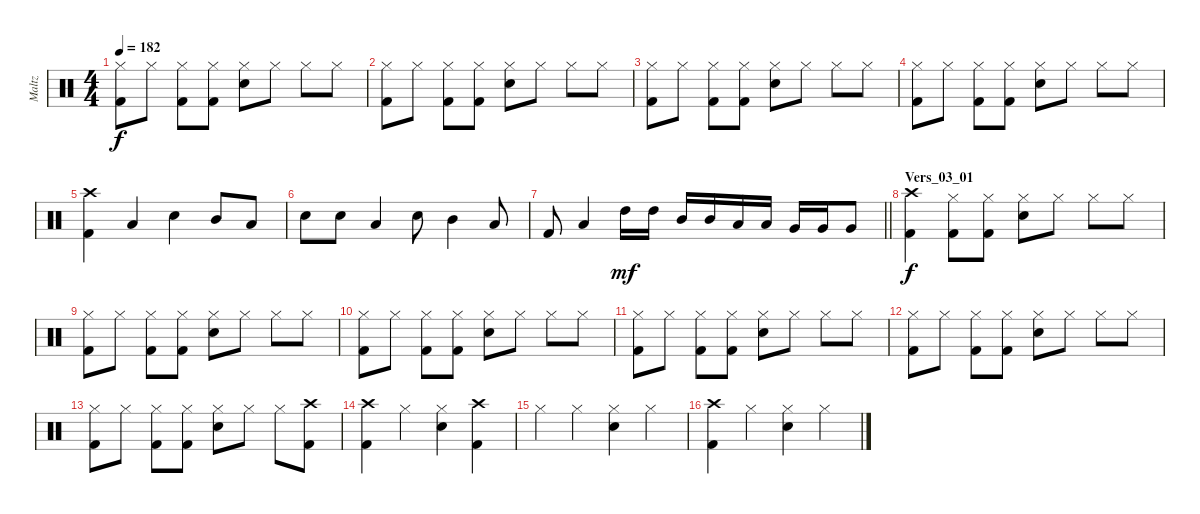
\track ("Maltz" "Maltz") {instrument percussion}
\staff {score}
\articulation defaults
\ts (4 4)
\tempo 182
\clef neutral
\ks c
("Hi-Hat (closed)" "Kick (hit) 2").8{dy f} "Hi-Hat (closed)".8 ("Hi-Hat (closed)" "Kick (hit) 2").8 ("Hi-Hat (closed)" "Kick (hit) 2").8 ("Hi-Hat (closed)" "Electric Snare (hit)").8 "Hi-Hat (closed)".8 "Hi-Hat (closed)".8 "Hi-Hat (closed)".8 |
("Hi-Hat (closed)" "Kick (hit) 2").8 "Hi-Hat (closed)".8 ("Hi-Hat (closed)" "Kick (hit) 2").8 ("Hi-Hat (closed)" "Kick (hit) 2").8 ("Hi-Hat (closed)" "Electric Snare (hit)").8 "Hi-Hat (closed)".8 "Hi-Hat (closed)".8 "Hi-Hat (closed)".8 |
("Hi-Hat (closed)" "Kick (hit) 2").8 "Hi-Hat (closed)".8 ("Hi-Hat (closed)" "Kick (hit) 2").8 ("Hi-Hat (closed)" "Kick (hit) 2").8 ("Hi-Hat (closed)" "Electric Snare (hit)").8 "Hi-Hat (closed)".8 "Hi-Hat (closed)".8 "Hi-Hat (closed)".8 |
("Hi-Hat (closed)" "Kick (hit) 2").8 "Hi-Hat (closed)".8 ("Hi-Hat (closed)" "Kick (hit) 2").8 ("Hi-Hat (closed)" "Kick (hit) 2").8 ("Hi-Hat (closed)" "Electric Snare (hit)").8 "Hi-Hat (closed)".8 "Hi-Hat (closed)".8 "Hi-Hat (closed)".8 |
("Crash high (hit)" "Kick (hit) 2").4 "Low Tom (hit)".4 "Electric Snare (hit)".4 "Mid Tom (hit)".8 "Low Tom (hit)".8 |
"Electric Snare (hit)".8 "Electric Snare (hit)".8 "Low Tom (hit)".4 "Electric Snare (hit)".8 "Mid Tom (hit)".4 "Low Tom (hit)".8 |
\barLineRight lightlight "Kick (hit) 2".8 "Low Tom (hit)".4 "High Tom (hit)".16{dy mf} "High Tom (hit)".16 "Mid Tom (hit)".16 "Mid Tom (hit)".16 "Low Tom (hit)".16 "Low Tom (hit)".16 "Very Low Tom (hit)".16 "Very Low Tom (hit)".16 "Very Low Tom (hit)".8
|
\section ("" "Vers_03_01")
("Crash high (hit)" "Kick (hit) 2").4{dy f} ("Hi-Hat (closed)" "Kick (hit) 2").8 ("Hi-Hat (closed)" "Kick (hit) 2").8 ("Hi-Hat (closed)" "Electric Snare (hit)").8 "Hi-Hat (closed)".8 "Hi-Hat (closed)".8 "Hi-Hat (closed)".8 |
("Hi-Hat (closed)" "Kick (hit) 2").8 "Hi-Hat (closed)".8 ("Hi-Hat (closed)" "Kick (hit) 2").8 ("Hi-Hat (closed)" "Kick (hit) 2").8 ("Hi-Hat (closed)" "Electric Snare (hit)").8 "Hi-Hat (closed)".8 "Hi-Hat (closed)".8 "Hi-Hat (closed)".8 |
("Hi-Hat (closed)" "Kick (hit) 2").8 "Hi-Hat (closed)".8 ("Hi-Hat (closed)" "Kick (hit) 2").8 ("Hi-Hat (closed)" "Kick (hit) 2").8 ("Hi-Hat (closed)" "Electric Snare (hit)").8 "Hi-Hat (closed)".8 "Hi-Hat (closed)".8 "Hi-Hat (closed)".8 |
("Hi-Hat (closed)" "Kick (hit) 2").8 "Hi-Hat (closed)".8 ("Hi-Hat (closed)" "Kick (hit) 2").8 ("Hi-Hat (closed)" "Kick (hit) 2").8 ("Hi-Hat (closed)" "Electric Snare (hit)").8 "Hi-Hat (closed)".8 "Hi-Hat (closed)".8 "Hi-Hat (closed)".8 |
("Hi-Hat (closed)" "Kick (hit) 2").8 "Hi-Hat (closed)".8 ("Hi-Hat (closed)" "Kick (hit) 2").8 ("Hi-Hat (closed)" "Kick (hit) 2").8 ("Hi-Hat (closed)" "Electric Snare (hit)").8 "Hi-Hat (closed)".8 "Hi-Hat (closed)".8 "Hi-Hat (closed)".8 |
("Hi-Hat (closed)" "Kick (hit) 2").8 "Hi-Hat (closed)".8 ("Hi-Hat (closed)" "Kick (hit) 2").8 ("Hi-Hat (closed)" "Kick (hit) 2").8 ("Hi-Hat (closed)" "Electric Snare (hit)").8 "Hi-Hat (closed)".8 "Hi-Hat (closed)".8 ("Crash high (hit)" "Kick (hit) 2").8 |
("Crash high (hit)" "Kick (hit) 2").4 "Hi-Hat (closed)".4 ("Hi-Hat (closed)" "Electric Snare (hit)").4 ("Crash high (hit)" "Kick (hit) 2").4 |
"Hi-Hat (closed)".4 "Hi-Hat (closed)".4 ("Hi-Hat (closed)" "Electric Snare (hit)").4 "Hi-Hat (closed)".4 |
("Crash high (hit)" "Kick (hit) 2").4 "Hi-Hat (closed)".4 ("Hi-Hat (closed)" "Electric Snare (hit)").4 "Hi-Hat (closed)".4
